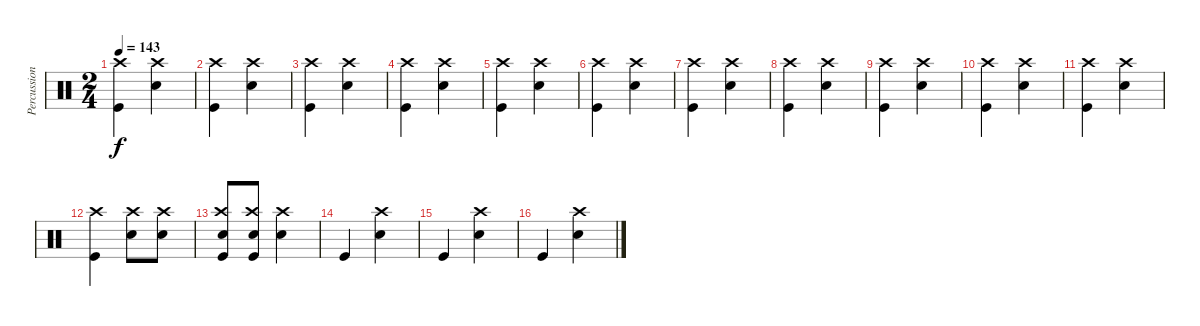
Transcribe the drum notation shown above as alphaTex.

\track ("Percussion" "Percussion") {instrument percussion}
\staff {score}
\articulation defaults
\ts (2 4)
\tempo 143
\clef neutral
\ks c
("Kick (hit)" "Crash high (hit)").4{dy f} ("Snare (hit) 2" "Crash high (hit)").4 |
("Kick (hit)" "Crash high (hit)").4 ("Snare (hit) 2" "Crash high (hit)").4 |
("Kick (hit)" "Crash high (hit)").4 ("Snare (hit) 2" "Crash high (hit)").4 |
("Kick (hit)" "Crash high (hit)").4 ("Snare (hit) 2" "Crash high (hit)").4 |
("Kick (hit)" "Crash high (hit)").4 ("Snare (hit) 2" "Crash high (hit)").4 |
("Kick (hit)" "Crash high (hit)").4 ("Snare (hit) 2" "Crash high (hit)").4 |
("Kick (hit)" "Crash high (hit)").4 ("Snare (hit) 2" "Crash high (hit)").4 |
("Kick (hit)" "Crash high (hit)").4 ("Snare (hit) 2" "Crash high (hit)").4 |
("Kick (hit)" "Crash high (hit)").4 ("Snare (hit) 2" "Crash high (hit)").4 |
("Kick (hit)" "Crash high (hit)").4 ("Snare (hit) 2" "Crash high (hit)").4 |
("Kick (hit)" "Crash high (hit)").4 ("Snare (hit) 2" "Crash high (hit)").4 |
("Kick (hit)" "Crash high (hit)").4 ("Snare (hit) 2" "Crash high (hit)").8 ("Snare (hit) 2" "Crash high (hit)").8 |
("Snare (hit) 2" "Kick (hit)" "Crash high (hit)").8 ("Snare (hit) 2" "Kick (hit)" "Crash high (hit)").8 ("Snare (hit) 2" "Crash high (hit)").4 |
"Kick (hit)".4 ("Snare (hit) 2" "Crash high (hit)").4 |
"Kick (hit)".4 ("Snare (hit) 2" "Crash high (hit)").4 |
"Kick (hit)".4 ("Snare (hit) 2" "Crash high (hit)").4
